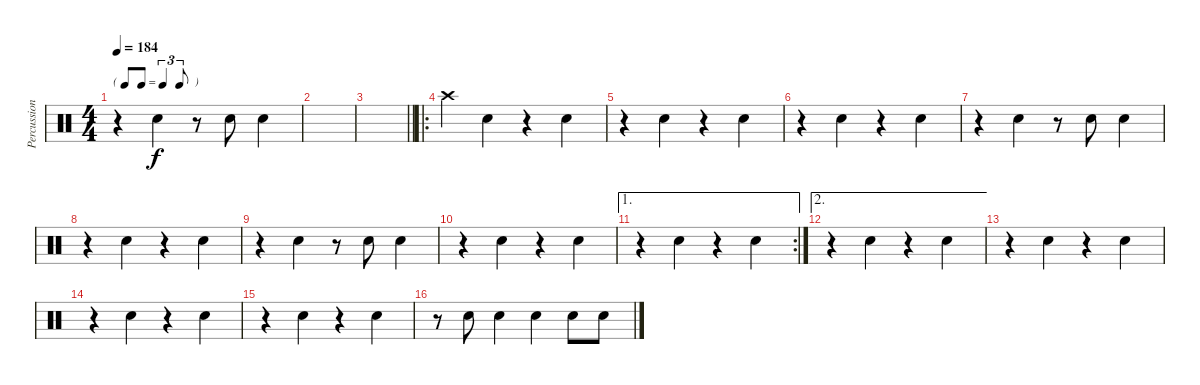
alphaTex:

\track ("Percussion" "Percussion") {instrument percussion}
\staff {score}
\articulation defaults
\ts (4 4)
\tf triplet8th
\tempo 184
\clef neutral
\ks c
r.4{dy f} "Snare (hit) 2".4 r.8 "Snare (hit) 2".8 "Snare (hit) 2".4 |
|
\barLineRight lightlight
|
\ro "Crash high (hit)".4 "Snare (hit) 2".4
r.4 "Snare (hit) 2".4 |
r.4 "Snare (hit) 2".4 r.4 "Snare (hit) 2".4 |
r.4 "Snare (hit) 2".4 r.4 "Snare (hit) 2".4 |
r.4 "Snare (hit) 2".4 r.8 "Snare (hit) 2".8 "Snare (hit) 2".4 |
r.4 "Snare (hit) 2".4 r.4 "Snare (hit) 2".4 |
r.4 "Snare (hit) 2".4 r.8 "Snare (hit) 2".8 "Snare (hit) 2".4 |
r.4 "Snare (hit) 2".4 r.4 "Snare (hit) 2".4 |
\ae 1
\rc 2
r.4 "Snare (hit) 2".4 r.4 "Snare (hit) 2".4 |
\ae 2
r.4 "Snare (hit) 2".4 r.4 "Snare (hit) 2".4 |
r.4 "Snare (hit) 2".4 r.4 "Snare (hit) 2".4 |
r.4 "Snare (hit) 2".4 r.4 "Snare (hit) 2".4 |
r.4 "Snare (hit) 2".4 r.4 "Snare (hit) 2".4 |
r.8 "Snare (hit) 2".8 "Snare (hit) 2".4 "Snare (hit) 2".4 "Snare (hit) 2".8 "Snare (hit) 2".8
